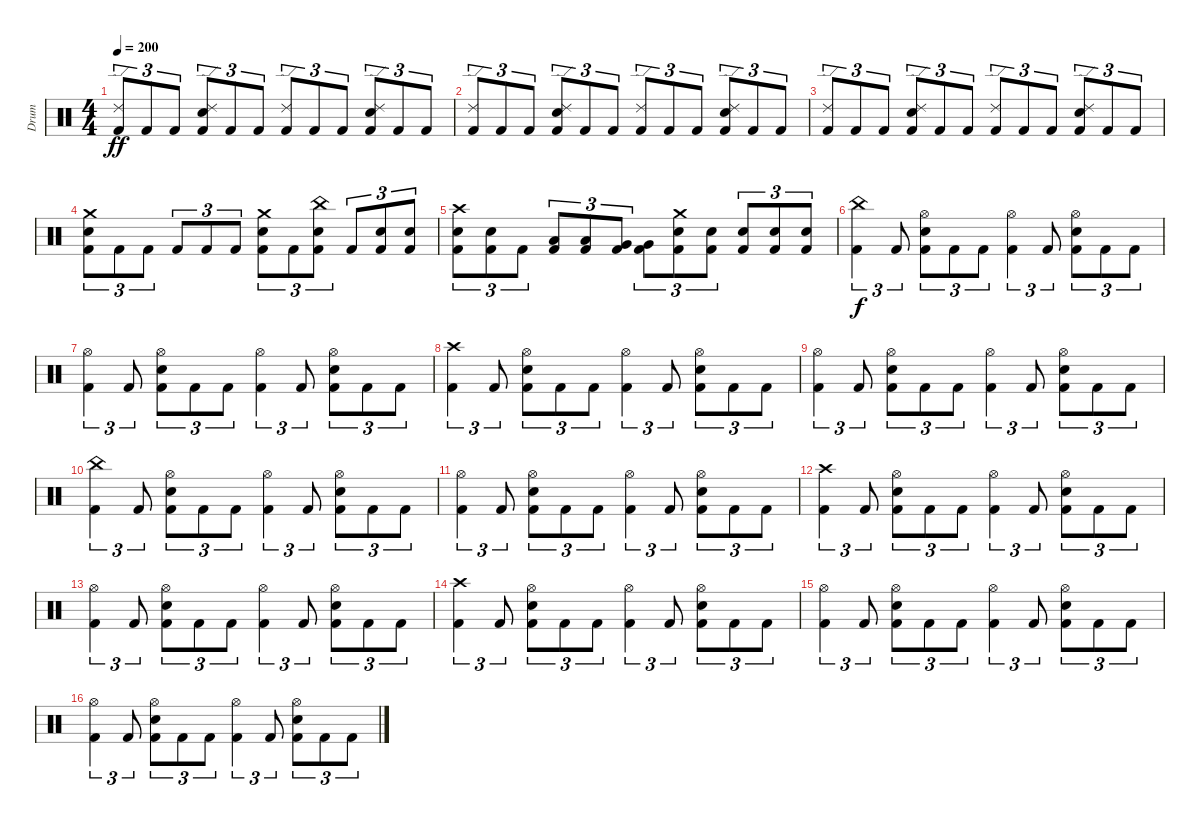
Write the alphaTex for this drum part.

\track ("Drum" "Drum") {instrument percussion}
\staff {score}
\articulation defaults
\ts (4 4)
\tempo 200
\clef neutral
\ks c
("Ride (edge) 2" "Kick (hit) 2").8{tu (3 2) dy ff} "Kick (hit) 2".8{tu (3 2)} "Kick (hit) 2".8{tu (3 2)} ("Ride (edge) 2" "Snare (hit) 2" "Kick (hit) 2").8{tu (3 2)} "Kick (hit) 2".8{tu (3 2)} "Kick (hit) 2".8{tu (3 2)} ("Ride (edge) 2" "Kick (hit) 2").8{tu (3 2)} "Kick (hit) 2".8{tu (3 2)} "Kick (hit) 2".8{tu (3 2)} ("Ride (edge) 2" "Snare (hit) 2" "Kick (hit) 2").8{tu (3 2)} "Kick (hit) 2".8{tu (3 2)} "Kick (hit) 2".8{tu (3 2)} |
("Ride (edge) 2" "Kick (hit) 2").8{tu (3 2)} "Kick (hit) 2".8{tu (3 2)} "Kick (hit) 2".8{tu (3 2)} ("Ride (edge) 2" "Snare (hit) 2" "Kick (hit) 2").8{tu (3 2)} "Kick (hit) 2".8{tu (3 2)} "Kick (hit) 2".8{tu (3 2)} ("Ride (edge) 2" "Kick (hit) 2").8{tu (3 2)} "Kick (hit) 2".8{tu (3 2)} "Kick (hit) 2".8{tu (3 2)} ("Ride (edge) 2" "Snare (hit) 2" "Kick (hit) 2").8{tu (3 2)} "Kick (hit) 2".8{tu (3 2)} "Kick (hit) 2".8{tu (3 2)} |
("Ride (edge) 2" "Kick (hit) 2").8{tu (3 2)} "Kick (hit) 2".8{tu (3 2)} "Kick (hit) 2".8{tu (3 2)} ("Ride (edge) 2" "Snare (hit) 2" "Kick (hit) 2").8{tu (3 2)} "Kick (hit) 2".8{tu (3 2)} "Kick (hit) 2".8{tu (3 2)} ("Ride (edge) 2" "Kick (hit) 2").8{tu (3 2)} "Kick (hit) 2".8{tu (3 2)} "Kick (hit) 2".8{tu (3 2)} ("Ride (edge) 2" "Snare (hit) 2" "Kick (hit) 2").8{tu (3 2)} "Kick (hit) 2".8{tu (3 2)} "Kick (hit) 2".8{tu (3 2)} |
("Crash medium (hit)" "Snare (hit) 2" "Kick (hit) 2").8{tu (3 2)} "Kick (hit) 2".8{tu (3 2)} "Kick (hit) 2".8{tu (3 2)} "Kick (hit) 2".8{tu (3 2)} "Kick (hit) 2".8{tu (3 2)} "Kick (hit) 2".8{tu (3 2)} ("Crash medium (hit)" "Snare (hit) 2" "Kick (hit) 2").8{tu (3 2)} "Kick (hit) 2".8{tu (3 2)} ("China (hit)" "Snare (hit) 2" "Kick (hit) 2").8{tu (3 2)} "Kick (hit) 2".8{tu (3 2)} ("Snare (hit) 2" "Kick (hit) 2").8{tu (3 2)} ("Snare (hit) 2" "Kick (hit) 2").8{tu (3 2)} |
("Crash high (hit)" "Snare (hit) 2" "Kick (hit) 2").8{tu (3 2)} ("Snare (hit) 2" "Kick (hit) 2").8{tu (3 2)} "Kick (hit) 2".8{tu (3 2)} ("Low Tom (hit)" "Kick (hit) 2").8{tu (3 2)} ("Low Tom (hit)" "Kick (hit) 2").8{tu (3 2)} ("Very Low Tom (hit)" "Kick (hit) 2").8{tu (3 2)} ("Very Low Tom (hit)" "Kick (hit) 2").8{tu (3 2)} ("Crash medium (hit)" "Snare (hit) 2" "Kick (hit) 2").8{tu (3 2)} ("Snare (hit) 2" "Kick (hit) 2").8{tu (3 2)} ("Snare (hit) 2" "Kick (hit) 2").8{tu (3 2)} ("Snare (hit) 2" "Kick (hit) 2").8{tu (3 2)} ("Snare (hit) 2" "Kick (hit) 2").8{tu (3 2)} |
("China (hit)" "Kick (hit) 2").4{tu (3 2) dy f} "Kick (hit) 2".8{tu (3 2)} ("Hi-Hat (open)" "Snare (hit) 2" "Kick (hit) 2").8{tu (3 2)} "Kick (hit) 2".8{tu (3 2)} "Kick (hit) 2".8{tu (3 2)} ("Hi-Hat (open)" "Kick (hit) 2").4{tu (3 2)} "Kick (hit) 2".8{tu (3 2)} ("Hi-Hat (open)" "Snare (hit) 2" "Kick (hit) 2").8{tu (3 2)} "Kick (hit) 2".8{tu (3 2)} "Kick (hit) 2".8{tu (3 2)} |
("Hi-Hat (open)" "Kick (hit) 2").4{tu (3 2)} "Kick (hit) 2".8{tu (3 2)} ("Hi-Hat (open)" "Snare (hit) 2" "Kick (hit) 2").8{tu (3 2)} "Kick (hit) 2".8{tu (3 2)} "Kick (hit) 2".8{tu (3 2)} ("Hi-Hat (open)" "Kick (hit) 2").4{tu (3 2)} "Kick (hit) 2".8{tu (3 2)} ("Hi-Hat (open)" "Snare (hit) 2" "Kick (hit) 2").8{tu (3 2)} "Kick (hit) 2".8{tu (3 2)} "Kick (hit) 2".8{tu (3 2)} |
("Crash high (hit)" "Kick (hit) 2").4{tu (3 2)} "Kick (hit) 2".8{tu (3 2)} ("Hi-Hat (open)" "Snare (hit) 2" "Kick (hit) 2").8{tu (3 2)} "Kick (hit) 2".8{tu (3 2)} "Kick (hit) 2".8{tu (3 2)} ("Hi-Hat (open)" "Kick (hit) 2").4{tu (3 2)} "Kick (hit) 2".8{tu (3 2)} ("Hi-Hat (open)" "Snare (hit) 2" "Kick (hit) 2").8{tu (3 2)} "Kick (hit) 2".8{tu (3 2)} "Kick (hit) 2".8{tu (3 2)} |
("Hi-Hat (open)" "Kick (hit) 2").4{tu (3 2)} "Kick (hit) 2".8{tu (3 2)} ("Hi-Hat (open)" "Snare (hit) 2" "Kick (hit) 2").8{tu (3 2)} "Kick (hit) 2".8{tu (3 2)} "Kick (hit) 2".8{tu (3 2)} ("Hi-Hat (open)" "Kick (hit) 2").4{tu (3 2)} "Kick (hit) 2".8{tu (3 2)} ("Hi-Hat (open)" "Snare (hit) 2" "Kick (hit) 2").8{tu (3 2)} "Kick (hit) 2".8{tu (3 2)} "Kick (hit) 2".8{tu (3 2)} |
("China (hit)" "Kick (hit) 2").4{tu (3 2)} "Kick (hit) 2".8{tu (3 2)} ("Hi-Hat (open)" "Snare (hit) 2" "Kick (hit) 2").8{tu (3 2)} "Kick (hit) 2".8{tu (3 2)} "Kick (hit) 2".8{tu (3 2)} ("Hi-Hat (open)" "Kick (hit) 2").4{tu (3 2)} "Kick (hit) 2".8{tu (3 2)} ("Hi-Hat (open)" "Snare (hit) 2" "Kick (hit) 2").8{tu (3 2)} "Kick (hit) 2".8{tu (3 2)} "Kick (hit) 2".8{tu (3 2)} |
("Hi-Hat (open)" "Kick (hit) 2").4{tu (3 2)} "Kick (hit) 2".8{tu (3 2)} ("Hi-Hat (open)" "Snare (hit) 2" "Kick (hit) 2").8{tu (3 2)} "Kick (hit) 2".8{tu (3 2)} "Kick (hit) 2".8{tu (3 2)} ("Hi-Hat (open)" "Kick (hit) 2").4{tu (3 2)} "Kick (hit) 2".8{tu (3 2)} ("Hi-Hat (open)" "Snare (hit) 2" "Kick (hit) 2").8{tu (3 2)} "Kick (hit) 2".8{tu (3 2)} "Kick (hit) 2".8{tu (3 2)} |
("Crash high (hit)" "Kick (hit) 2").4{tu (3 2)} "Kick (hit) 2".8{tu (3 2)} ("Hi-Hat (open)" "Snare (hit) 2" "Kick (hit) 2").8{tu (3 2)} "Kick (hit) 2".8{tu (3 2)} "Kick (hit) 2".8{tu (3 2)} ("Hi-Hat (open)" "Kick (hit) 2").4{tu (3 2)} "Kick (hit) 2".8{tu (3 2)} ("Hi-Hat (open)" "Snare (hit) 2" "Kick (hit) 2").8{tu (3 2)} "Kick (hit) 2".8{tu (3 2)} "Kick (hit) 2".8{tu (3 2)} |
("Hi-Hat (open)" "Kick (hit) 2").4{tu (3 2)} "Kick (hit) 2".8{tu (3 2)} ("Hi-Hat (open)" "Snare (hit) 2" "Kick (hit) 2").8{tu (3 2)} "Kick (hit) 2".8{tu (3 2)} "Kick (hit) 2".8{tu (3 2)} ("Hi-Hat (open)" "Kick (hit) 2").4{tu (3 2)} "Kick (hit) 2".8{tu (3 2)} ("Hi-Hat (open)" "Snare (hit) 2" "Kick (hit) 2").8{tu (3 2)} "Kick (hit) 2".8{tu (3 2)} "Kick (hit) 2".8{tu (3 2)} |
("Crash high (hit)" "Kick (hit) 2").4{tu (3 2)} "Kick (hit) 2".8{tu (3 2)} ("Hi-Hat (open)" "Snare (hit) 2" "Kick (hit) 2").8{tu (3 2)} "Kick (hit) 2".8{tu (3 2)} "Kick (hit) 2".8{tu (3 2)} ("Hi-Hat (open)" "Kick (hit) 2").4{tu (3 2)} "Kick (hit) 2".8{tu (3 2)} ("Hi-Hat (open)" "Snare (hit) 2" "Kick (hit) 2").8{tu (3 2)} "Kick (hit) 2".8{tu (3 2)} "Kick (hit) 2".8{tu (3 2)} |
("Hi-Hat (open)" "Kick (hit) 2").4{tu (3 2)} "Kick (hit) 2".8{tu (3 2)} ("Hi-Hat (open)" "Snare (hit) 2" "Kick (hit) 2").8{tu (3 2)} "Kick (hit) 2".8{tu (3 2)} "Kick (hit) 2".8{tu (3 2)} ("Hi-Hat (open)" "Kick (hit) 2").4{tu (3 2)} "Kick (hit) 2".8{tu (3 2)} ("Hi-Hat (open)" "Snare (hit) 2" "Kick (hit) 2").8{tu (3 2)} "Kick (hit) 2".8{tu (3 2)} "Kick (hit) 2".8{tu (3 2)} |
("Hi-Hat (open)" "Kick (hit) 2").4{tu (3 2)} "Kick (hit) 2".8{tu (3 2)} ("Hi-Hat (open)" "Snare (hit) 2" "Kick (hit) 2").8{tu (3 2)} "Kick (hit) 2".8{tu (3 2)} "Kick (hit) 2".8{tu (3 2)} ("Hi-Hat (open)" "Kick (hit) 2").4{tu (3 2)} "Kick (hit) 2".8{tu (3 2)} ("Hi-Hat (open)" "Snare (hit) 2" "Kick (hit) 2").8{tu (3 2)} "Kick (hit) 2".8{tu (3 2)} "Kick (hit) 2".8{tu (3 2)}
